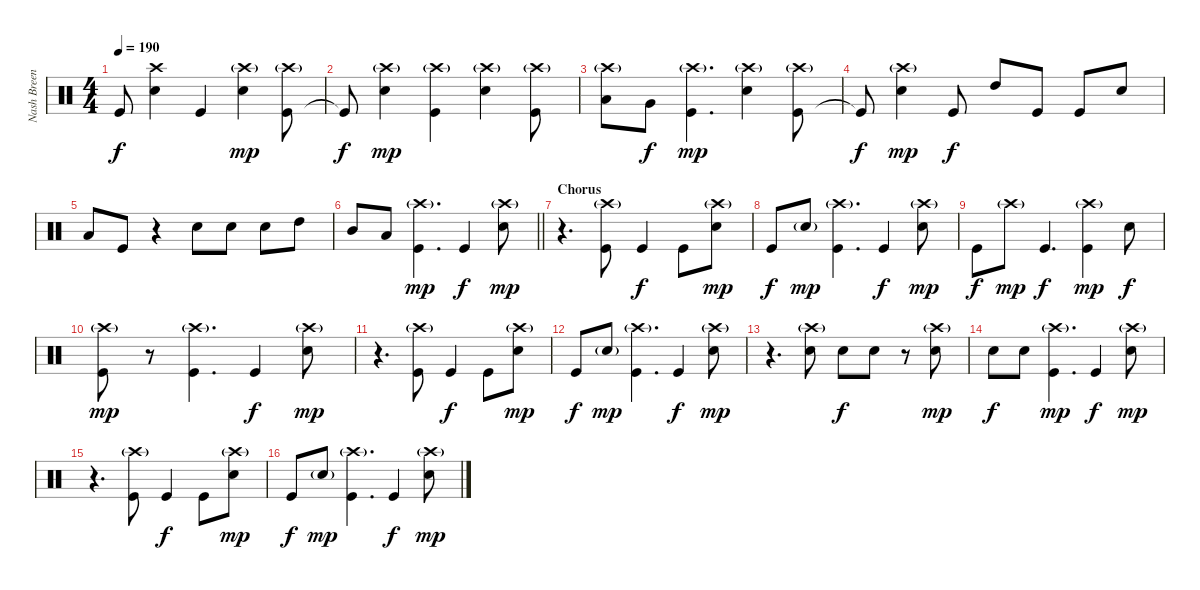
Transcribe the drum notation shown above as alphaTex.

\track ("Nash Breen (Percussion)" "Nash Breen") {instrument percussion}
\staff {score}
\articulation defaults
\ts (4 4)
\tempo 190
\clef neutral
\ks c "Kick (hit)"{t}.8{dy f}
("Electric Snare (hit)" "Crash high (hit)").4 "Kick (hit)".4 ("Electric Snare (hit)" "Crash high (hit)"{g}).4{dy mp} ("Kick (hit)" "Crash high (hit)"{g}).8 |
"Kick (hit)"{t}.8{dy f} ("Electric Snare (hit)" "Crash high (hit)"{g}).4{dy mp} ("Kick (hit)" "Crash high (hit)"{g}).4 ("Electric Snare (hit)" "Crash high (hit)"{g}).4 ("Kick (hit)" "Crash high (hit)"{g}).8 |
("Low Tom (hit)" "Crash high (hit)"{g}).8 "Very Low Tom (hit)".8{dy f} ("Kick (hit)" "Crash high (hit)"{g}).4{d dy mp} ("Electric Snare (hit)" "Crash high (hit)"{g}).4 ("Kick (hit)" "Crash high (hit)"{g}).8 |
"Kick (hit)"{t}.8{dy f} ("Electric Snare (hit)" "Crash high (hit)"{g}).4{dy mp} "Kick (hit)".8{dy f} "High Tom (hit)".8 "Kick (hit)".8 "Kick (hit)".8 "Electric Snare (hit)".8 |
"Low Tom (hit)".8 "Kick (hit)".8 r.4 "Electric Snare (hit)".8 "Electric Snare (hit)".8 "Electric Snare (hit)".8 "High Tom (hit)".8 |
\barLineRight lightlight "Mid Tom (hit)".8 "Low Tom (hit)".8
("Kick (hit)" "Crash high (hit)"{g}).4{d dy mp} "Kick (hit)".4{dy f} ("Electric Snare (hit)" "Crash high (hit)"{g}).8{dy mp} |
\section ("" "Chorus")
r.4{d} ("Kick (hit)" "Crash high (hit)"{g}).8 "Kick (hit)".4{dy f} "Kick (hit)".8 ("Electric Snare (hit)" "Crash high (hit)"{g}).8{dy mp} |
"Kick (hit)".8{dy f} "Electric Snare (hit)"{g}.8{dy mp} ("Kick (hit)" "Crash high (hit)"{g}).4{d} "Kick (hit)".4{dy f} ("Electric Snare (hit)" "Crash high (hit)"{g}).8{dy mp} |
"Kick (hit)".8{dy f} "Crash high (hit)"{g}.8{dy mp} "Kick (hit)".4{d dy f} ("Kick (hit)" "Crash high (hit)"{g}).4{dy mp} "Electric Snare (hit)".8{dy f} |
("Kick (hit)" "Crash high (hit)"{g}).8{dy mp} r.8 ("Kick (hit)" "Crash high (hit)"{g}).4{d} "Kick (hit)".4{dy f} ("Electric Snare (hit)" "Crash high (hit)"{g}).8{dy mp} |
r.4{d} ("Kick (hit)" "Crash high (hit)"{g}).8 "Kick (hit)".4{dy f} "Kick (hit)".8 ("Electric Snare (hit)" "Crash high (hit)"{g}).8{dy mp} |
"Kick (hit)".8{dy f} "Electric Snare (hit)"{g}.8{dy mp} ("Kick (hit)" "Crash high (hit)"{g}).4{d} "Kick (hit)".4{dy f} ("Electric Snare (hit)" "Crash high (hit)"{g}).8{dy mp} |
r.4{d} ("Electric Snare (hit)" "Crash high (hit)"{g}).8 "Electric Snare (hit)".8{dy f} "Electric Snare (hit)".8 r.8 ("Electric Snare (hit)" "Crash high (hit)"{g}).8{dy mp} |
"Electric Snare (hit)".8{dy f} "Electric Snare (hit)".8 ("Kick (hit)" "Crash high (hit)"{g}).4{d dy mp} "Kick (hit)".4{dy f} ("Electric Snare (hit)" "Crash high (hit)"{g}).8{dy mp} |
r.4{d} ("Kick (hit)" "Crash high (hit)"{g}).8 "Kick (hit)".4{dy f} "Kick (hit)".8 ("Electric Snare (hit)" "Crash high (hit)"{g}).8{dy mp} |
"Kick (hit)".8{dy f} "Electric Snare (hit)"{g}.8{dy mp} ("Kick (hit)" "Crash high (hit)"{g}).4{d} "Kick (hit)".4{dy f} ("Electric Snare (hit)" "Crash high (hit)"{g}).8{dy mp}
